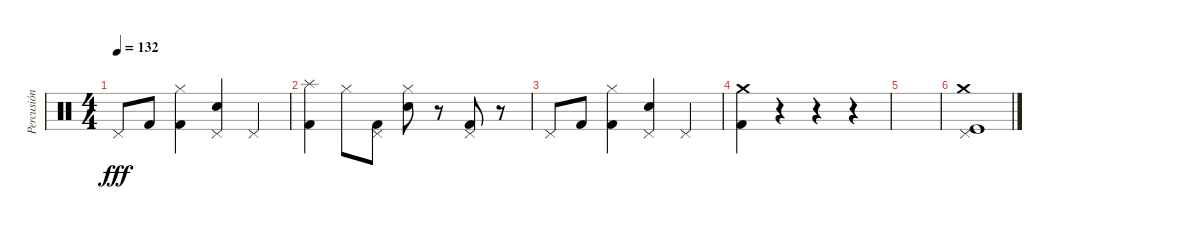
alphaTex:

\track ("Percusión" "Percusión") {instrument percussion}
\staff {score}
\articulation defaults
\ts (4 4)
\tempo 132
\clef neutral
\ks c "Pedal Hi-Hat (hit)".8{dy fff} "Kick (hit) 2".8
("Hi-Hat (closed)" "Kick (hit) 2").4 ("Pedal Hi-Hat (hit)" "Snare (hit) 2").4 "Pedal Hi-Hat (hit)".4 |
("Splash (hit)" "Kick (hit) 2").4 "Hi-Hat (closed)".8 ("Pedal Hi-Hat (hit)" "Kick (hit) 2").8 ("Hi-Hat (closed)" "Snare (hit) 2").8 r.8 ("Pedal Hi-Hat (hit)" "Kick (hit) 2").8 r.8 |
"Pedal Hi-Hat (hit)".8 "Kick (hit) 2".8 ("Hi-Hat (closed)" "Kick (hit) 2").4 ("Pedal Hi-Hat (hit)" "Snare (hit) 2").4 "Pedal Hi-Hat (hit)".4 |
("Crash medium (hit)" "Kick (hit) 2").4 r.4 r.4 r.4 |
|
("Crash medium (hit)" "Pedal Hi-Hat (hit)" "Kick (hit)").1
